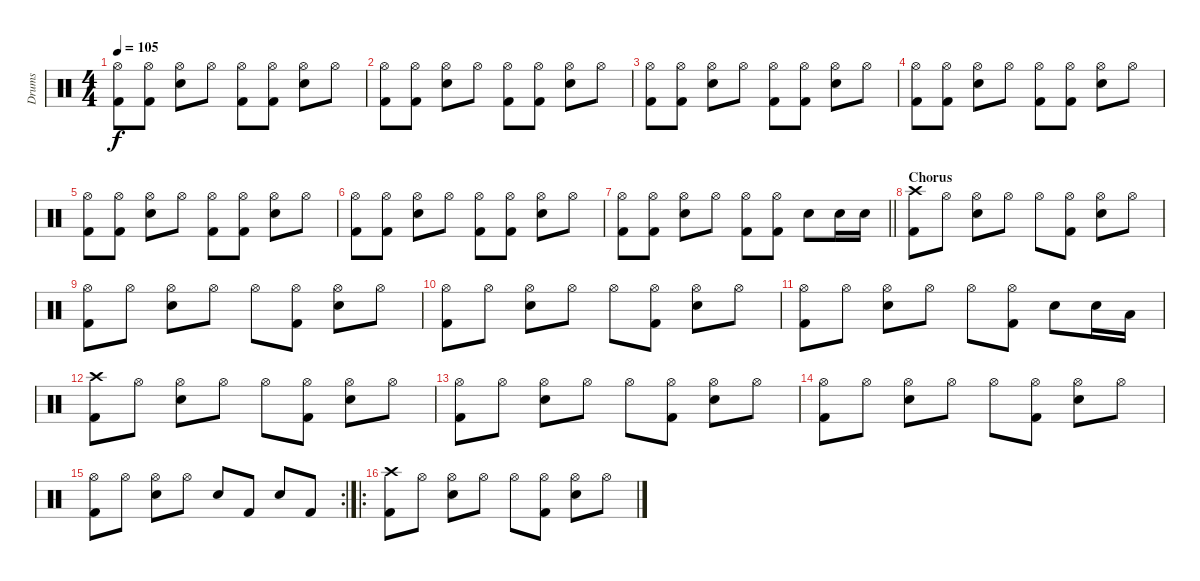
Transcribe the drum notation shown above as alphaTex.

\track ("Drums" "Drums") {instrument percussion}
\staff {score}
\articulation defaults
\ts (4 4)
\tempo 105
\clef neutral
\ks c
("Hi-Hat (open)" "Kick (hit) 2").8{dy f} ("Hi-Hat (open)" "Kick (hit) 2").8 ("Hi-Hat (open)" "Electric Snare (hit)").8 "Hi-Hat (open)".8 ("Hi-Hat (open)" "Kick (hit) 2").8 ("Hi-Hat (open)" "Kick (hit) 2").8 ("Hi-Hat (open)" "Electric Snare (hit)").8 "Hi-Hat (open)".8 |
("Hi-Hat (open)" "Kick (hit) 2").8 ("Hi-Hat (open)" "Kick (hit) 2").8 ("Hi-Hat (open)" "Electric Snare (hit)").8 "Hi-Hat (open)".8 ("Hi-Hat (open)" "Kick (hit) 2").8 ("Hi-Hat (open)" "Kick (hit) 2").8 ("Hi-Hat (open)" "Electric Snare (hit)").8 "Hi-Hat (open)".8 |
("Hi-Hat (open)" "Kick (hit) 2").8 ("Hi-Hat (open)" "Kick (hit) 2").8 ("Hi-Hat (open)" "Electric Snare (hit)").8 "Hi-Hat (open)".8 ("Hi-Hat (open)" "Kick (hit) 2").8 ("Hi-Hat (open)" "Kick (hit) 2").8 ("Hi-Hat (open)" "Electric Snare (hit)").8 "Hi-Hat (open)".8 |
("Hi-Hat (open)" "Kick (hit) 2").8 ("Hi-Hat (open)" "Kick (hit) 2").8 ("Hi-Hat (open)" "Electric Snare (hit)").8 "Hi-Hat (open)".8 ("Hi-Hat (open)" "Kick (hit) 2").8 ("Hi-Hat (open)" "Kick (hit) 2").8 ("Hi-Hat (open)" "Electric Snare (hit)").8 "Hi-Hat (open)".8 |
("Hi-Hat (open)" "Kick (hit) 2").8 ("Hi-Hat (open)" "Kick (hit) 2").8 ("Hi-Hat (open)" "Electric Snare (hit)").8 "Hi-Hat (open)".8 ("Hi-Hat (open)" "Kick (hit) 2").8 ("Hi-Hat (open)" "Kick (hit) 2").8 ("Hi-Hat (open)" "Electric Snare (hit)").8 "Hi-Hat (open)".8 |
("Hi-Hat (open)" "Kick (hit) 2").8 ("Hi-Hat (open)" "Kick (hit) 2").8 ("Hi-Hat (open)" "Electric Snare (hit)").8 "Hi-Hat (open)".8 ("Hi-Hat (open)" "Kick (hit) 2").8 ("Hi-Hat (open)" "Kick (hit) 2").8 ("Hi-Hat (open)" "Electric Snare (hit)").8 "Hi-Hat (open)".8 |
\barLineRight lightlight
("Hi-Hat (open)" "Kick (hit) 2").8 ("Hi-Hat (open)" "Kick (hit) 2").8 ("Hi-Hat (open)" "Electric Snare (hit)").8 "Hi-Hat (open)".8 ("Hi-Hat (open)" "Kick (hit) 2").8 ("Hi-Hat (open)" "Kick (hit) 2").8 "Electric Snare (hit)".8 "Electric Snare (hit)".16 "Electric Snare (hit)".16 |
\section ("" "Chorus")
("Crash high (hit)" "Kick (hit) 2").8 "Hi-Hat (open)".8 ("Hi-Hat (open)" "Electric Snare (hit)").8 "Hi-Hat (open)".8 "Hi-Hat (open)".8 ("Hi-Hat (open)" "Kick (hit) 2").8 ("Hi-Hat (open)" "Electric Snare (hit)").8 "Hi-Hat (open)".8 |
("Hi-Hat (open)" "Kick (hit) 2").8 "Hi-Hat (open)".8 ("Hi-Hat (open)" "Electric Snare (hit)").8 "Hi-Hat (open)".8 "Hi-Hat (open)".8 ("Hi-Hat (open)" "Kick (hit) 2").8 ("Hi-Hat (open)" "Electric Snare (hit)").8 "Hi-Hat (open)".8 |
("Hi-Hat (open)" "Kick (hit) 2").8 "Hi-Hat (open)".8 ("Hi-Hat (open)" "Electric Snare (hit)").8 "Hi-Hat (open)".8 "Hi-Hat (open)".8 ("Hi-Hat (open)" "Kick (hit) 2").8 ("Hi-Hat (open)" "Electric Snare (hit)").8 "Hi-Hat (open)".8 |
("Hi-Hat (open)" "Kick (hit) 2").8 "Hi-Hat (open)".8 ("Hi-Hat (open)" "Electric Snare (hit)").8 "Hi-Hat (open)".8 "Hi-Hat (open)".8 ("Hi-Hat (open)" "Kick (hit) 2").8 "Electric Snare (hit)".8 "Electric Snare (hit)".16 "Low Tom (hit)".16 |
("Crash high (hit)" "Kick (hit) 2").8 "Hi-Hat (open)".8 ("Hi-Hat (open)" "Electric Snare (hit)").8 "Hi-Hat (open)".8 "Hi-Hat (open)".8 ("Hi-Hat (open)" "Kick (hit) 2").8 ("Hi-Hat (open)" "Electric Snare (hit)").8 "Hi-Hat (open)".8 |
("Hi-Hat (open)" "Kick (hit) 2").8 "Hi-Hat (open)".8 ("Hi-Hat (open)" "Electric Snare (hit)").8 "Hi-Hat (open)".8 "Hi-Hat (open)".8 ("Hi-Hat (open)" "Kick (hit) 2").8 ("Hi-Hat (open)" "Electric Snare (hit)").8 "Hi-Hat (open)".8 |
("Hi-Hat (open)" "Kick (hit) 2").8 "Hi-Hat (open)".8 ("Hi-Hat (open)" "Electric Snare (hit)").8 "Hi-Hat (open)".8 "Hi-Hat (open)".8 ("Hi-Hat (open)" "Kick (hit) 2").8 ("Hi-Hat (open)" "Electric Snare (hit)").8 "Hi-Hat (open)".8 |
\rc 2
("Hi-Hat (open)" "Kick (hit) 2").8 "Hi-Hat (open)".8 ("Hi-Hat (open)" "Electric Snare (hit)").8 "Hi-Hat (open)".8 "Electric Snare (hit)".8 "Kick (hit) 2".8 "Electric Snare (hit)".8 "Kick (hit) 2".8 |
\ro
("Crash high (hit)" "Kick (hit) 2").8 "Hi-Hat (open)".8 ("Hi-Hat (open)" "Electric Snare (hit)").8 "Hi-Hat (open)".8 "Hi-Hat (open)".8 ("Hi-Hat (open)" "Kick (hit) 2").8 ("Hi-Hat (open)" "Electric Snare (hit)").8 "Hi-Hat (open)".8
